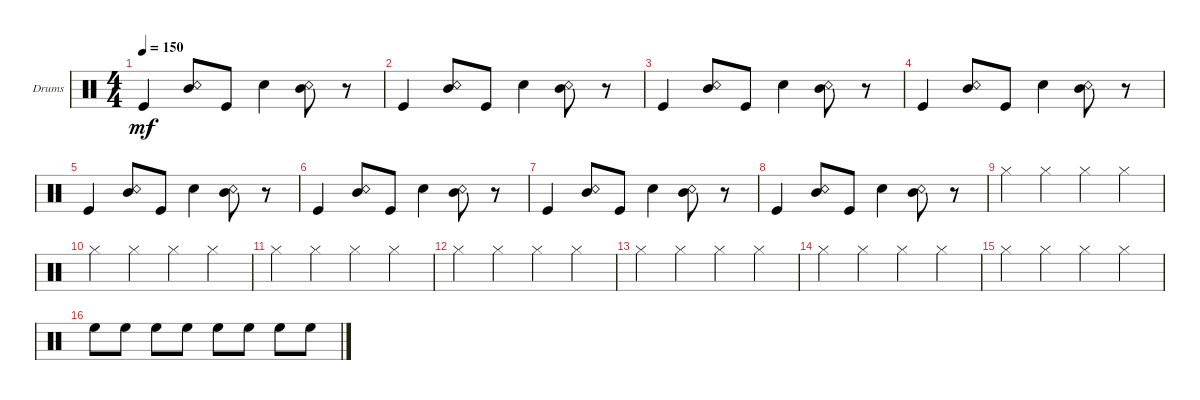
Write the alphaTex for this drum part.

\defaultSystemsLayout 4
\bracketExtendMode groupsimilarinstruments
\firstSystemTrackNameOrientation horizontal
\otherSystemsTrackNameOrientation horizontal
\track ("Drumkit" "Drums") {instrument percussion}
\staff {score}
\articulation defaults
\ts (4 4)
\tempo 150
\clef neutral
\ks c "Kick (hit)".4{dy mf}
("Mid Tom (hit)" "Snare (rim shot)").8 "Kick (hit)".8 "Snare (hit) 2".4 ("Mid Tom (hit)" "Snare (rim shot)").8 r.8 |
"Kick (hit)".4 ("Mid Tom (hit)" "Snare (rim shot)").8 "Kick (hit)".8 "Snare (hit) 2".4 ("Mid Tom (hit)" "Snare (rim shot)").8 r.8 |
"Kick (hit)".4 ("Mid Tom (hit)" "Snare (rim shot)").8 "Kick (hit)".8 "Snare (hit) 2".4 ("Mid Tom (hit)" "Snare (rim shot)").8 r.8 |
"Kick (hit)".4 ("Mid Tom (hit)" "Snare (rim shot)").8 "Kick (hit)".8 "Snare (hit) 2".4 ("Mid Tom (hit)" "Snare (rim shot)").8 r.8 |
"Kick (hit)".4 ("Mid Tom (hit)" "Snare (rim shot)").8 "Kick (hit)".8 "Snare (hit) 2".4 ("Mid Tom (hit)" "Snare (rim shot)").8 r.8 |
"Kick (hit)".4 ("Mid Tom (hit)" "Snare (rim shot)").8 "Kick (hit)".8 "Snare (hit) 2".4 ("Mid Tom (hit)" "Snare (rim shot)").8 r.8 |
"Kick (hit)".4 ("Mid Tom (hit)" "Snare (rim shot)").8 "Kick (hit)".8 "Snare (hit) 2".4 ("Mid Tom (hit)" "Snare (rim shot)").8 r.8 |
"Kick (hit)".4 ("Mid Tom (hit)" "Snare (rim shot)").8 "Kick (hit)".8 "Snare (hit) 2".4 ("Mid Tom (hit)" "Snare (rim shot)").8 r.8 |
"Hi-Hat (closed)".4 "Hi-Hat (closed)".4 "Hi-Hat (closed)".4 "Hi-Hat (closed)".4 |
"Hi-Hat (closed)".4 "Hi-Hat (closed)".4 "Hi-Hat (closed)".4 "Hi-Hat (closed)".4 |
"Hi-Hat (closed)".4 "Hi-Hat (closed)".4 "Hi-Hat (closed)".4 "Hi-Hat (closed)".4 |
"Hi-Hat (closed)".4 "Hi-Hat (closed)".4 "Hi-Hat (closed)".4 "Hi-Hat (closed)".4 |
"Hi-Hat (closed)".4 "Hi-Hat (closed)".4 "Hi-Hat (closed)".4 "Hi-Hat (closed)".4 |
"Hi-Hat (closed)".4 "Hi-Hat (closed)".4 "Hi-Hat (closed)".4 "Hi-Hat (closed)".4 |
"Hi-Hat (closed)".4 "Hi-Hat (closed)".4 "Hi-Hat (closed)".4 "Hi-Hat (closed)".4 |
"High Floor Tom (hit)".8 "High Floor Tom (hit)".8 "High Floor Tom (hit)".8 "High Floor Tom (hit)".8 "High Floor Tom (hit)".8 "High Floor Tom (hit)".8 "High Floor Tom (hit)".8 "High Floor Tom (hit)".8
